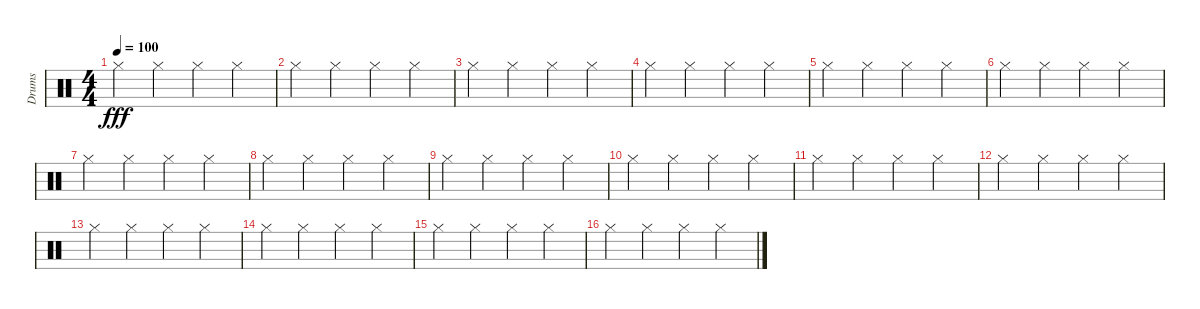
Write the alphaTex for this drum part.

\defaultSystemsLayout 4
\bracketExtendMode groupsimilarinstruments
\otherSystemsTrackNameOrientation horizontal
\track ("Prakarsh" "Drums") {instrument percussion}
\staff {score}
\articulation defaults
\ts (4 4)
\tempo 100
\clef neutral
\ks c "Hi-Hat (closed)".4{dy fff beam Down} "Hi-Hat (closed)".4{beam Down} "Hi-Hat (closed)".4{beam Down} "Hi-Hat (closed)".4{beam Down}
|
"Hi-Hat (closed)".4{beam Down} "Hi-Hat (closed)".4{beam Down} "Hi-Hat (closed)".4{beam Down} "Hi-Hat (closed)".4{beam Down} |
"Hi-Hat (closed)".4{beam Down} "Hi-Hat (closed)".4{beam Down} "Hi-Hat (closed)".4{beam Down} "Hi-Hat (closed)".4{beam Down} |
"Hi-Hat (closed)".4{beam Down} "Hi-Hat (closed)".4{beam Down} "Hi-Hat (closed)".4{beam Down} "Hi-Hat (closed)".4{beam Down} |
"Hi-Hat (closed)".4{beam Down} "Hi-Hat (closed)".4{beam Down} "Hi-Hat (closed)".4{beam Down} "Hi-Hat (closed)".4{beam Down} |
"Hi-Hat (closed)".4{beam Down} "Hi-Hat (closed)".4{beam Down} "Hi-Hat (closed)".4{beam Down} "Hi-Hat (closed)".4{beam Down} |
"Hi-Hat (closed)".4{beam Down} "Hi-Hat (closed)".4{beam Down} "Hi-Hat (closed)".4{beam Down} "Hi-Hat (closed)".4{beam Down} |
"Hi-Hat (closed)".4{beam Down} "Hi-Hat (closed)".4{beam Down} "Hi-Hat (closed)".4{beam Down} "Hi-Hat (closed)".4{beam Down} |
"Hi-Hat (closed)".4{beam Down} "Hi-Hat (closed)".4{beam Down} "Hi-Hat (closed)".4{beam Down} "Hi-Hat (closed)".4{beam Down} |
"Hi-Hat (closed)".4{beam Down} "Hi-Hat (closed)".4{beam Down} "Hi-Hat (closed)".4{beam Down} "Hi-Hat (closed)".4{beam Down} |
"Hi-Hat (closed)".4{beam Down} "Hi-Hat (closed)".4{beam Down} "Hi-Hat (closed)".4{beam Down} "Hi-Hat (closed)".4{beam Down} |
"Hi-Hat (closed)".4{beam Down} "Hi-Hat (closed)".4{beam Down} "Hi-Hat (closed)".4{beam Down} "Hi-Hat (closed)".4{beam Down} |
"Hi-Hat (closed)".4{beam Down} "Hi-Hat (closed)".4{beam Down} "Hi-Hat (closed)".4{beam Down} "Hi-Hat (closed)".4{beam Down} |
"Hi-Hat (closed)".4{beam Down} "Hi-Hat (closed)".4{beam Down} "Hi-Hat (closed)".4{beam Down} "Hi-Hat (closed)".4{beam Down} |
"Hi-Hat (closed)".4{beam Down} "Hi-Hat (closed)".4{beam Down} "Hi-Hat (closed)".4{beam Down} "Hi-Hat (closed)".4{beam Down} |
"Hi-Hat (closed)".4{beam Down} "Hi-Hat (closed)".4{beam Down} "Hi-Hat (closed)".4{beam Down} "Hi-Hat (closed)".4{beam Down}
